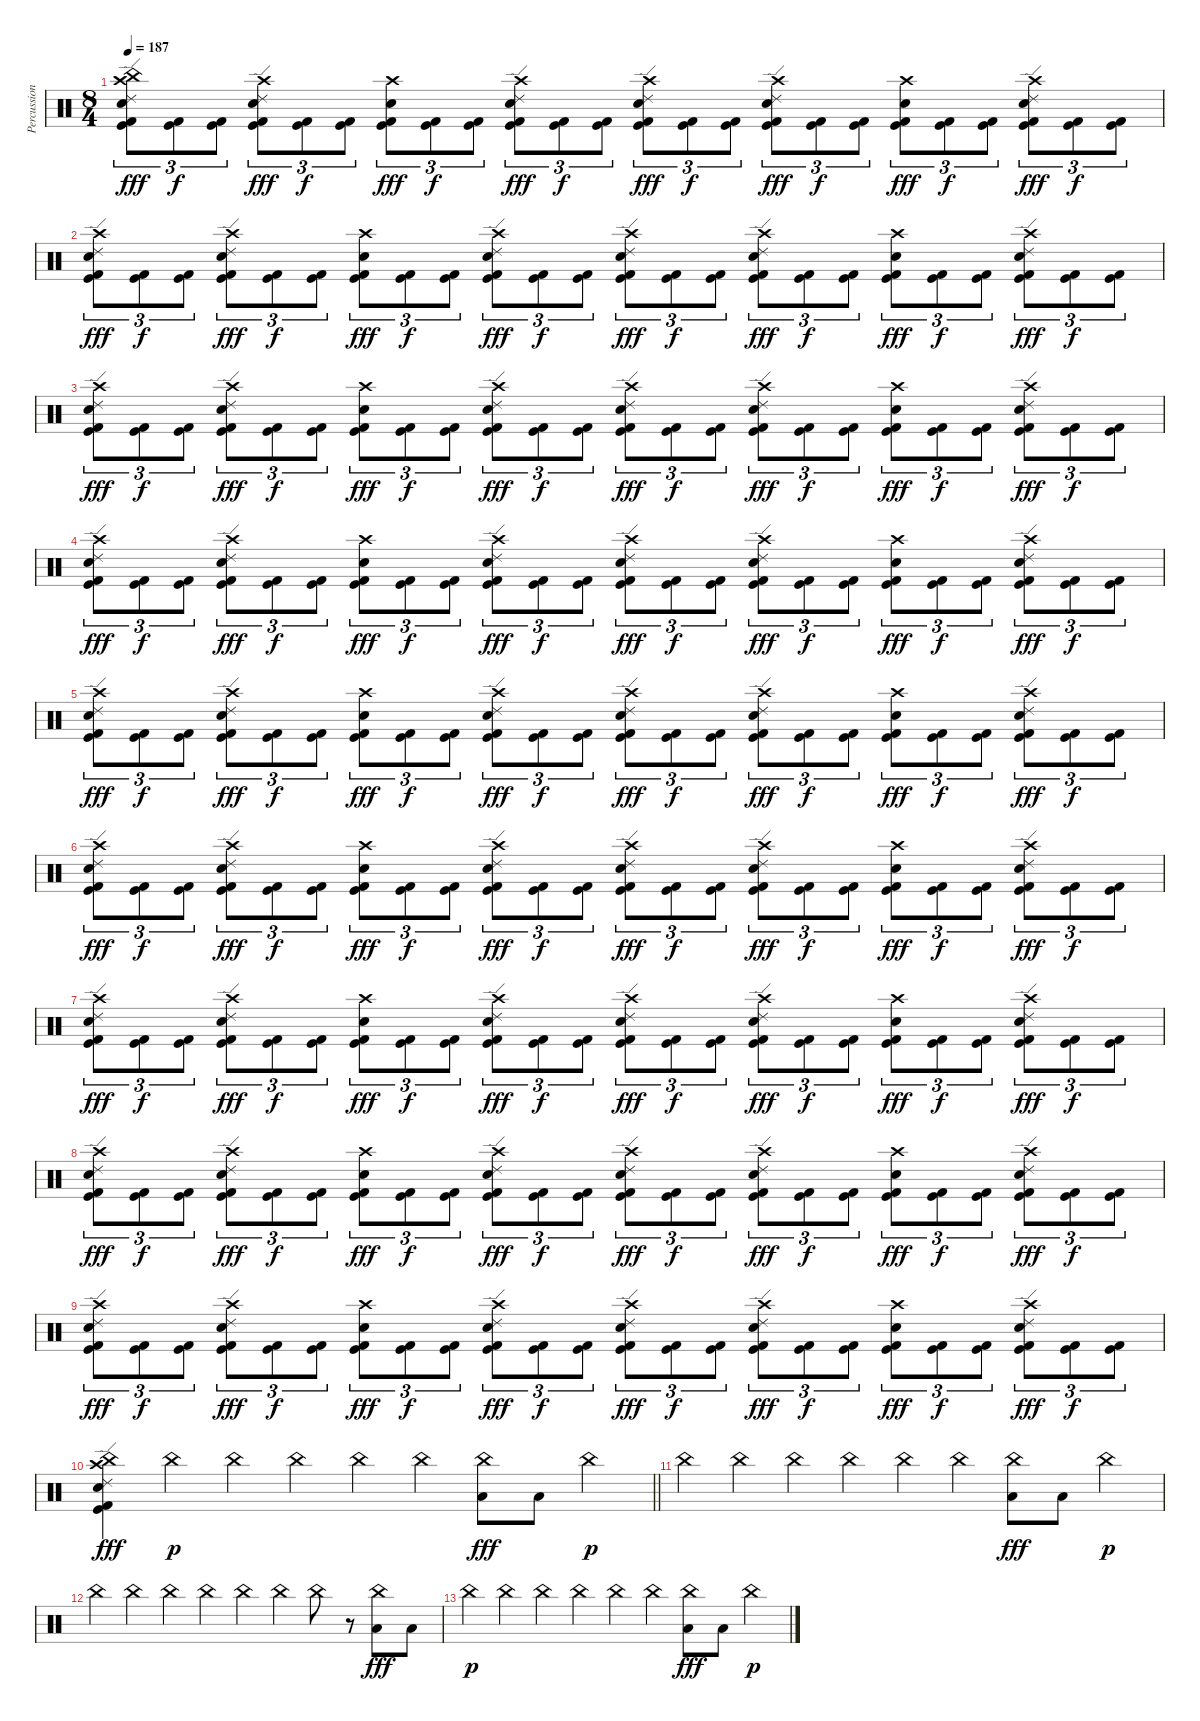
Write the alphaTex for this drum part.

\track ("Percussions" "Percussion") {instrument percussion}
\staff {score}
\articulation defaults
\ts (8 4)
\tempo 187
\clef neutral
\ks c
("China (hit)" "Crash high (hit)" "Ride (edge) 2" "Snare (hit) 2" "Kick (hit)" "Kick (hit) 2").8{tu (3 2) dy fff} ("Kick (hit)" "Kick (hit) 2").8{tu (3 2) dy f} ("Kick (hit)" "Kick (hit) 2").8{tu (3 2)} ("Crash high (hit)" "Ride (edge) 2" "Snare (hit) 2" "Kick (hit)" "Kick (hit) 2").8{tu (3 2) dy fff} ("Kick (hit)" "Kick (hit) 2").8{tu (3 2) dy f} ("Kick (hit)" "Kick (hit) 2").8{tu (3 2)} ("Crash high (hit)" "Snare (hit) 2" "Kick (hit)" "Kick (hit) 2").8{tu (3 2) dy fff} ("Kick (hit)" "Kick (hit) 2").8{tu (3 2) dy f} ("Kick (hit)" "Kick (hit) 2").8{tu (3 2)} ("Crash high (hit)" "Ride (edge) 2" "Snare (hit) 2" "Kick (hit)" "Kick (hit) 2").8{tu (3 2) dy fff} ("Kick (hit)" "Kick (hit) 2").8{tu (3 2) dy f} ("Kick (hit)" "Kick (hit) 2").8{tu (3 2)} ("Crash high (hit)" "Ride (edge) 2" "Snare (hit) 2" "Kick (hit)" "Kick (hit) 2").8{tu (3 2) dy fff} ("Kick (hit)" "Kick (hit) 2").8{tu (3 2) dy f} ("Kick (hit)" "Kick (hit) 2").8{tu (3 2)} ("Crash high (hit)" "Ride (edge) 2" "Snare (hit) 2" "Kick (hit)" "Kick (hit) 2").8{tu (3 2) dy fff} ("Kick (hit)" "Kick (hit) 2").8{tu (3 2) dy f} ("Kick (hit)" "Kick (hit) 2").8{tu (3 2)} ("Crash high (hit)" "Snare (hit) 2" "Kick (hit)" "Kick (hit) 2").8{tu (3 2) dy fff} ("Kick (hit)" "Kick (hit) 2").8{tu (3 2) dy f} ("Kick (hit)" "Kick (hit) 2").8{tu (3 2)} ("Crash high (hit)" "Ride (edge) 2" "Snare (hit) 2" "Kick (hit)" "Kick (hit) 2").8{tu (3 2) dy fff} ("Kick (hit)" "Kick (hit) 2").8{tu (3 2) dy f} ("Kick (hit)" "Kick (hit) 2").8{tu (3 2)} |
("Crash high (hit)" "Ride (edge) 2" "Snare (hit) 2" "Kick (hit)" "Kick (hit) 2").8{tu (3 2) dy fff} ("Kick (hit)" "Kick (hit) 2").8{tu (3 2) dy f} ("Kick (hit)" "Kick (hit) 2").8{tu (3 2)} ("Crash high (hit)" "Ride (edge) 2" "Snare (hit) 2" "Kick (hit)" "Kick (hit) 2").8{tu (3 2) dy fff} ("Kick (hit)" "Kick (hit) 2").8{tu (3 2) dy f} ("Kick (hit)" "Kick (hit) 2").8{tu (3 2)} ("Crash high (hit)" "Snare (hit) 2" "Kick (hit)" "Kick (hit) 2").8{tu (3 2) dy fff} ("Kick (hit)" "Kick (hit) 2").8{tu (3 2) dy f} ("Kick (hit)" "Kick (hit) 2").8{tu (3 2)} ("Crash high (hit)" "Ride (edge) 2" "Snare (hit) 2" "Kick (hit)" "Kick (hit) 2").8{tu (3 2) dy fff} ("Kick (hit)" "Kick (hit) 2").8{tu (3 2) dy f} ("Kick (hit)" "Kick (hit) 2").8{tu (3 2)} ("Crash high (hit)" "Ride (edge) 2" "Snare (hit) 2" "Kick (hit)" "Kick (hit) 2").8{tu (3 2) dy fff} ("Kick (hit)" "Kick (hit) 2").8{tu (3 2) dy f} ("Kick (hit)" "Kick (hit) 2").8{tu (3 2)} ("Crash high (hit)" "Ride (edge) 2" "Snare (hit) 2" "Kick (hit)" "Kick (hit) 2").8{tu (3 2) dy fff} ("Kick (hit)" "Kick (hit) 2").8{tu (3 2) dy f} ("Kick (hit)" "Kick (hit) 2").8{tu (3 2)} ("Crash high (hit)" "Snare (hit) 2" "Kick (hit)" "Kick (hit) 2").8{tu (3 2) dy fff} ("Kick (hit)" "Kick (hit) 2").8{tu (3 2) dy f} ("Kick (hit)" "Kick (hit) 2").8{tu (3 2)} ("Crash high (hit)" "Ride (edge) 2" "Snare (hit) 2" "Kick (hit)" "Kick (hit) 2").8{tu (3 2) dy fff} ("Kick (hit)" "Kick (hit) 2").8{tu (3 2) dy f} ("Kick (hit)" "Kick (hit) 2").8{tu (3 2)} |
("Crash high (hit)" "Ride (edge) 2" "Snare (hit) 2" "Kick (hit)" "Kick (hit) 2").8{tu (3 2) dy fff} ("Kick (hit)" "Kick (hit) 2").8{tu (3 2) dy f} ("Kick (hit)" "Kick (hit) 2").8{tu (3 2)} ("Crash high (hit)" "Ride (edge) 2" "Snare (hit) 2" "Kick (hit)" "Kick (hit) 2").8{tu (3 2) dy fff} ("Kick (hit)" "Kick (hit) 2").8{tu (3 2) dy f} ("Kick (hit)" "Kick (hit) 2").8{tu (3 2)} ("Crash high (hit)" "Snare (hit) 2" "Kick (hit)" "Kick (hit) 2").8{tu (3 2) dy fff} ("Kick (hit)" "Kick (hit) 2").8{tu (3 2) dy f} ("Kick (hit)" "Kick (hit) 2").8{tu (3 2)} ("Crash high (hit)" "Ride (edge) 2" "Snare (hit) 2" "Kick (hit)" "Kick (hit) 2").8{tu (3 2) dy fff} ("Kick (hit)" "Kick (hit) 2").8{tu (3 2) dy f} ("Kick (hit)" "Kick (hit) 2").8{tu (3 2)} ("Crash high (hit)" "Ride (edge) 2" "Snare (hit) 2" "Kick (hit)" "Kick (hit) 2").8{tu (3 2) dy fff} ("Kick (hit)" "Kick (hit) 2").8{tu (3 2) dy f} ("Kick (hit)" "Kick (hit) 2").8{tu (3 2)} ("Crash high (hit)" "Ride (edge) 2" "Snare (hit) 2" "Kick (hit)" "Kick (hit) 2").8{tu (3 2) dy fff} ("Kick (hit)" "Kick (hit) 2").8{tu (3 2) dy f} ("Kick (hit)" "Kick (hit) 2").8{tu (3 2)} ("Crash high (hit)" "Snare (hit) 2" "Kick (hit)" "Kick (hit) 2").8{tu (3 2) dy fff} ("Kick (hit)" "Kick (hit) 2").8{tu (3 2) dy f} ("Kick (hit)" "Kick (hit) 2").8{tu (3 2)} ("Crash high (hit)" "Ride (edge) 2" "Snare (hit) 2" "Kick (hit)" "Kick (hit) 2").8{tu (3 2) dy fff} ("Kick (hit)" "Kick (hit) 2").8{tu (3 2) dy f} ("Kick (hit)" "Kick (hit) 2").8{tu (3 2)} |
("Crash high (hit)" "Ride (edge) 2" "Snare (hit) 2" "Kick (hit)" "Kick (hit) 2").8{tu (3 2) dy fff} ("Kick (hit)" "Kick (hit) 2").8{tu (3 2) dy f} ("Kick (hit)" "Kick (hit) 2").8{tu (3 2)} ("Crash high (hit)" "Ride (edge) 2" "Snare (hit) 2" "Kick (hit)" "Kick (hit) 2").8{tu (3 2) dy fff} ("Kick (hit)" "Kick (hit) 2").8{tu (3 2) dy f} ("Kick (hit)" "Kick (hit) 2").8{tu (3 2)} ("Crash high (hit)" "Snare (hit) 2" "Kick (hit)" "Kick (hit) 2").8{tu (3 2) dy fff} ("Kick (hit)" "Kick (hit) 2").8{tu (3 2) dy f} ("Kick (hit)" "Kick (hit) 2").8{tu (3 2)} ("Crash high (hit)" "Ride (edge) 2" "Snare (hit) 2" "Kick (hit)" "Kick (hit) 2").8{tu (3 2) dy fff} ("Kick (hit)" "Kick (hit) 2").8{tu (3 2) dy f} ("Kick (hit)" "Kick (hit) 2").8{tu (3 2)} ("Crash high (hit)" "Ride (edge) 2" "Snare (hit) 2" "Kick (hit)" "Kick (hit) 2").8{tu (3 2) dy fff} ("Kick (hit)" "Kick (hit) 2").8{tu (3 2) dy f} ("Kick (hit)" "Kick (hit) 2").8{tu (3 2)} ("Crash high (hit)" "Ride (edge) 2" "Snare (hit) 2" "Kick (hit)" "Kick (hit) 2").8{tu (3 2) dy fff} ("Kick (hit)" "Kick (hit) 2").8{tu (3 2) dy f} ("Kick (hit)" "Kick (hit) 2").8{tu (3 2)} ("Crash high (hit)" "Snare (hit) 2" "Kick (hit)" "Kick (hit) 2").8{tu (3 2) dy fff} ("Kick (hit)" "Kick (hit) 2").8{tu (3 2) dy f} ("Kick (hit)" "Kick (hit) 2").8{tu (3 2)} ("Crash high (hit)" "Ride (edge) 2" "Snare (hit) 2" "Kick (hit)" "Kick (hit) 2").8{tu (3 2) dy fff} ("Kick (hit)" "Kick (hit) 2").8{tu (3 2) dy f} ("Kick (hit)" "Kick (hit) 2").8{tu (3 2)} |
("Crash high (hit)" "Ride (edge) 2" "Snare (hit) 2" "Kick (hit)" "Kick (hit) 2").8{tu (3 2) dy fff} ("Kick (hit)" "Kick (hit) 2").8{tu (3 2) dy f} ("Kick (hit)" "Kick (hit) 2").8{tu (3 2)} ("Crash high (hit)" "Ride (edge) 2" "Snare (hit) 2" "Kick (hit)" "Kick (hit) 2").8{tu (3 2) dy fff} ("Kick (hit)" "Kick (hit) 2").8{tu (3 2) dy f} ("Kick (hit)" "Kick (hit) 2").8{tu (3 2)} ("Crash high (hit)" "Snare (hit) 2" "Kick (hit)" "Kick (hit) 2").8{tu (3 2) dy fff} ("Kick (hit)" "Kick (hit) 2").8{tu (3 2) dy f} ("Kick (hit)" "Kick (hit) 2").8{tu (3 2)} ("Crash high (hit)" "Ride (edge) 2" "Snare (hit) 2" "Kick (hit)" "Kick (hit) 2").8{tu (3 2) dy fff} ("Kick (hit)" "Kick (hit) 2").8{tu (3 2) dy f} ("Kick (hit)" "Kick (hit) 2").8{tu (3 2)} ("Crash high (hit)" "Ride (edge) 2" "Snare (hit) 2" "Kick (hit)" "Kick (hit) 2").8{tu (3 2) dy fff} ("Kick (hit)" "Kick (hit) 2").8{tu (3 2) dy f} ("Kick (hit)" "Kick (hit) 2").8{tu (3 2)} ("Crash high (hit)" "Ride (edge) 2" "Snare (hit) 2" "Kick (hit)" "Kick (hit) 2").8{tu (3 2) dy fff} ("Kick (hit)" "Kick (hit) 2").8{tu (3 2) dy f} ("Kick (hit)" "Kick (hit) 2").8{tu (3 2)} ("Crash high (hit)" "Snare (hit) 2" "Kick (hit)" "Kick (hit) 2").8{tu (3 2) dy fff} ("Kick (hit)" "Kick (hit) 2").8{tu (3 2) dy f} ("Kick (hit)" "Kick (hit) 2").8{tu (3 2)} ("Crash high (hit)" "Ride (edge) 2" "Snare (hit) 2" "Kick (hit)" "Kick (hit) 2").8{tu (3 2) dy fff} ("Kick (hit)" "Kick (hit) 2").8{tu (3 2) dy f} ("Kick (hit)" "Kick (hit) 2").8{tu (3 2)} |
("Crash high (hit)" "Ride (edge) 2" "Snare (hit) 2" "Kick (hit)" "Kick (hit) 2").8{tu (3 2) dy fff} ("Kick (hit)" "Kick (hit) 2").8{tu (3 2) dy f} ("Kick (hit)" "Kick (hit) 2").8{tu (3 2)} ("Crash high (hit)" "Ride (edge) 2" "Snare (hit) 2" "Kick (hit)" "Kick (hit) 2").8{tu (3 2) dy fff} ("Kick (hit)" "Kick (hit) 2").8{tu (3 2) dy f} ("Kick (hit)" "Kick (hit) 2").8{tu (3 2)} ("Crash high (hit)" "Snare (hit) 2" "Kick (hit)" "Kick (hit) 2").8{tu (3 2) dy fff} ("Kick (hit)" "Kick (hit) 2").8{tu (3 2) dy f} ("Kick (hit)" "Kick (hit) 2").8{tu (3 2)} ("Crash high (hit)" "Ride (edge) 2" "Snare (hit) 2" "Kick (hit)" "Kick (hit) 2").8{tu (3 2) dy fff} ("Kick (hit)" "Kick (hit) 2").8{tu (3 2) dy f} ("Kick (hit)" "Kick (hit) 2").8{tu (3 2)} ("Crash high (hit)" "Ride (edge) 2" "Snare (hit) 2" "Kick (hit)" "Kick (hit) 2").8{tu (3 2) dy fff} ("Kick (hit)" "Kick (hit) 2").8{tu (3 2) dy f} ("Kick (hit)" "Kick (hit) 2").8{tu (3 2)} ("Crash high (hit)" "Ride (edge) 2" "Snare (hit) 2" "Kick (hit)" "Kick (hit) 2").8{tu (3 2) dy fff} ("Kick (hit)" "Kick (hit) 2").8{tu (3 2) dy f} ("Kick (hit)" "Kick (hit) 2").8{tu (3 2)} ("Crash high (hit)" "Snare (hit) 2" "Kick (hit)" "Kick (hit) 2").8{tu (3 2) dy fff} ("Kick (hit)" "Kick (hit) 2").8{tu (3 2) dy f} ("Kick (hit)" "Kick (hit) 2").8{tu (3 2)} ("Crash high (hit)" "Ride (edge) 2" "Snare (hit) 2" "Kick (hit)" "Kick (hit) 2").8{tu (3 2) dy fff} ("Kick (hit)" "Kick (hit) 2").8{tu (3 2) dy f} ("Kick (hit)" "Kick (hit) 2").8{tu (3 2)} |
("Crash high (hit)" "Ride (edge) 2" "Snare (hit) 2" "Kick (hit)" "Kick (hit) 2").8{tu (3 2) dy fff} ("Kick (hit)" "Kick (hit) 2").8{tu (3 2) dy f} ("Kick (hit)" "Kick (hit) 2").8{tu (3 2)} ("Crash high (hit)" "Ride (edge) 2" "Snare (hit) 2" "Kick (hit)" "Kick (hit) 2").8{tu (3 2) dy fff} ("Kick (hit)" "Kick (hit) 2").8{tu (3 2) dy f} ("Kick (hit)" "Kick (hit) 2").8{tu (3 2)} ("Crash high (hit)" "Snare (hit) 2" "Kick (hit)" "Kick (hit) 2").8{tu (3 2) dy fff} ("Kick (hit)" "Kick (hit) 2").8{tu (3 2) dy f} ("Kick (hit)" "Kick (hit) 2").8{tu (3 2)} ("Crash high (hit)" "Ride (edge) 2" "Snare (hit) 2" "Kick (hit)" "Kick (hit) 2").8{tu (3 2) dy fff} ("Kick (hit)" "Kick (hit) 2").8{tu (3 2) dy f} ("Kick (hit)" "Kick (hit) 2").8{tu (3 2)} ("Crash high (hit)" "Ride (edge) 2" "Snare (hit) 2" "Kick (hit)" "Kick (hit) 2").8{tu (3 2) dy fff} ("Kick (hit)" "Kick (hit) 2").8{tu (3 2) dy f} ("Kick (hit)" "Kick (hit) 2").8{tu (3 2)} ("Crash high (hit)" "Ride (edge) 2" "Snare (hit) 2" "Kick (hit)" "Kick (hit) 2").8{tu (3 2) dy fff} ("Kick (hit)" "Kick (hit) 2").8{tu (3 2) dy f} ("Kick (hit)" "Kick (hit) 2").8{tu (3 2)} ("Crash high (hit)" "Snare (hit) 2" "Kick (hit)" "Kick (hit) 2").8{tu (3 2) dy fff} ("Kick (hit)" "Kick (hit) 2").8{tu (3 2) dy f} ("Kick (hit)" "Kick (hit) 2").8{tu (3 2)} ("Crash high (hit)" "Ride (edge) 2" "Snare (hit) 2" "Kick (hit)" "Kick (hit) 2").8{tu (3 2) dy fff} ("Kick (hit)" "Kick (hit) 2").8{tu (3 2) dy f} ("Kick (hit)" "Kick (hit) 2").8{tu (3 2)} |
("Crash high (hit)" "Ride (edge) 2" "Snare (hit) 2" "Kick (hit)" "Kick (hit) 2").8{tu (3 2) dy fff} ("Kick (hit)" "Kick (hit) 2").8{tu (3 2) dy f} ("Kick (hit)" "Kick (hit) 2").8{tu (3 2)} ("Crash high (hit)" "Ride (edge) 2" "Snare (hit) 2" "Kick (hit)" "Kick (hit) 2").8{tu (3 2) dy fff} ("Kick (hit)" "Kick (hit) 2").8{tu (3 2) dy f} ("Kick (hit)" "Kick (hit) 2").8{tu (3 2)} ("Crash high (hit)" "Snare (hit) 2" "Kick (hit)" "Kick (hit) 2").8{tu (3 2) dy fff} ("Kick (hit)" "Kick (hit) 2").8{tu (3 2) dy f} ("Kick (hit)" "Kick (hit) 2").8{tu (3 2)} ("Crash high (hit)" "Ride (edge) 2" "Snare (hit) 2" "Kick (hit)" "Kick (hit) 2").8{tu (3 2) dy fff} ("Kick (hit)" "Kick (hit) 2").8{tu (3 2) dy f} ("Kick (hit)" "Kick (hit) 2").8{tu (3 2)} ("Crash high (hit)" "Ride (edge) 2" "Snare (hit) 2" "Kick (hit)" "Kick (hit) 2").8{tu (3 2) dy fff} ("Kick (hit)" "Kick (hit) 2").8{tu (3 2) dy f} ("Kick (hit)" "Kick (hit) 2").8{tu (3 2)} ("Crash high (hit)" "Ride (edge) 2" "Snare (hit) 2" "Kick (hit)" "Kick (hit) 2").8{tu (3 2) dy fff} ("Kick (hit)" "Kick (hit) 2").8{tu (3 2) dy f} ("Kick (hit)" "Kick (hit) 2").8{tu (3 2)} ("Crash high (hit)" "Snare (hit) 2" "Kick (hit)" "Kick (hit) 2").8{tu (3 2) dy fff} ("Kick (hit)" "Kick (hit) 2").8{tu (3 2) dy f} ("Kick (hit)" "Kick (hit) 2").8{tu (3 2)} ("Crash high (hit)" "Ride (edge) 2" "Snare (hit) 2" "Kick (hit)" "Kick (hit) 2").8{tu (3 2) dy fff} ("Kick (hit)" "Kick (hit) 2").8{tu (3 2) dy f} ("Kick (hit)" "Kick (hit) 2").8{tu (3 2)} |
("Crash high (hit)" "Ride (edge) 2" "Snare (hit) 2" "Kick (hit)" "Kick (hit) 2").8{tu (3 2) dy fff} ("Kick (hit)" "Kick (hit) 2").8{tu (3 2) dy f} ("Kick (hit)" "Kick (hit) 2").8{tu (3 2)} ("Crash high (hit)" "Ride (edge) 2" "Snare (hit) 2" "Kick (hit)" "Kick (hit) 2").8{tu (3 2) dy fff} ("Kick (hit)" "Kick (hit) 2").8{tu (3 2) dy f} ("Kick (hit)" "Kick (hit) 2").8{tu (3 2)} ("Crash high (hit)" "Snare (hit) 2" "Kick (hit)" "Kick (hit) 2").8{tu (3 2) dy fff} ("Kick (hit)" "Kick (hit) 2").8{tu (3 2) dy f} ("Kick (hit)" "Kick (hit) 2").8{tu (3 2)} ("Crash high (hit)" "Ride (edge) 2" "Snare (hit) 2" "Kick (hit)" "Kick (hit) 2").8{tu (3 2) dy fff} ("Kick (hit)" "Kick (hit) 2").8{tu (3 2) dy f} ("Kick (hit)" "Kick (hit) 2").8{tu (3 2)} ("Crash high (hit)" "Ride (edge) 2" "Snare (hit) 2" "Kick (hit)" "Kick (hit) 2").8{tu (3 2) dy fff} ("Kick (hit)" "Kick (hit) 2").8{tu (3 2) dy f} ("Kick (hit)" "Kick (hit) 2").8{tu (3 2)} ("Crash high (hit)" "Ride (edge) 2" "Snare (hit) 2" "Kick (hit)" "Kick (hit) 2").8{tu (3 2) dy fff} ("Kick (hit)" "Kick (hit) 2").8{tu (3 2) dy f} ("Kick (hit)" "Kick (hit) 2").8{tu (3 2)} ("Crash high (hit)" "Snare (hit) 2" "Kick (hit)" "Kick (hit) 2").8{tu (3 2) dy fff} ("Kick (hit)" "Kick (hit) 2").8{tu (3 2) dy f} ("Kick (hit)" "Kick (hit) 2").8{tu (3 2)} ("Crash high (hit)" "Ride (edge) 2" "Snare (hit) 2" "Kick (hit)" "Kick (hit) 2").8{tu (3 2) dy fff} ("Kick (hit)" "Kick (hit) 2").8{tu (3 2) dy f} ("Kick (hit)" "Kick (hit) 2").8{tu (3 2)} |
\barLineRight lightlight
("China (hit)" "Crash high (hit)" "Ride (edge) 2" "Snare (hit) 2" "Kick (hit)" "Kick (hit) 2").4{dy fff} "China (hit)".4{dy p} "China (hit)".4 "China (hit)".4 "China (hit)".4 "China (hit)".4 ("China (hit)" "Low Tom (hit)").8{dy fff} "Low Tom (hit)".8 "China (hit)".4{dy p} |
"China (hit)".4 "China (hit)".4 "China (hit)".4 "China (hit)".4 "China (hit)".4 "China (hit)".4 ("China (hit)" "Low Tom (hit)").8{dy fff} "Low Tom (hit)".8 "China (hit)".4{dy p} |
"China (hit)".4 "China (hit)".4 "China (hit)".4 "China (hit)".4 "China (hit)".4 "China (hit)".4 "China (hit)".8 r.8 ("China (hit)" "Low Tom (hit)").8{dy fff} "Low Tom (hit)".8 |
"China (hit)".4{dy p volume 0} "China (hit)".4 "China (hit)".4 "China (hit)".4 "China (hit)".4 "China (hit)".4 ("China (hit)" "Low Tom (hit)").8{dy fff} "Low Tom (hit)".8 "China (hit)".4{dy p}
